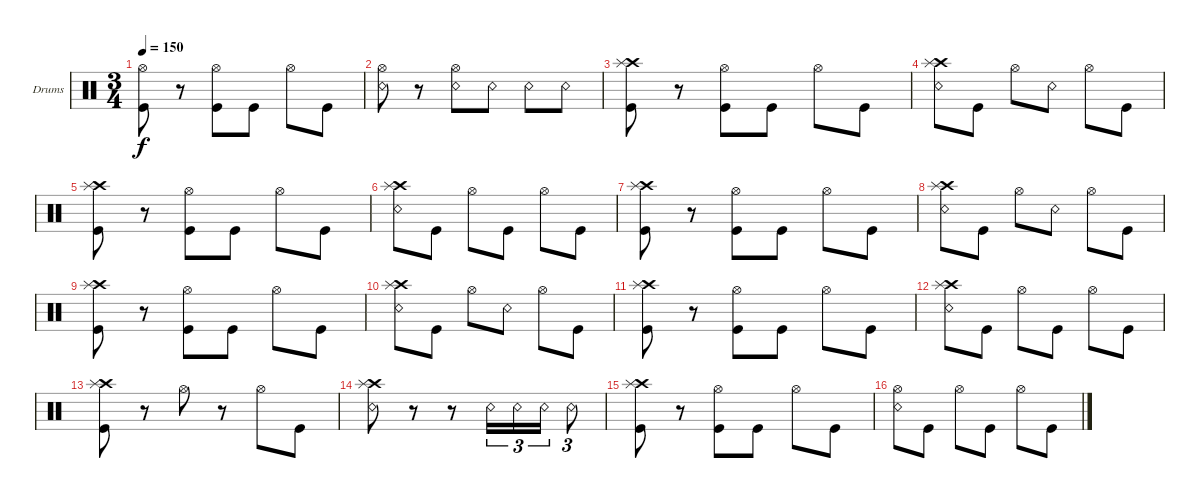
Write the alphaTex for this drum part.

\defaultSystemsLayout 4
\bracketExtendMode groupsimilarinstruments
\firstSystemTrackNameOrientation horizontal
\otherSystemsTrackNameOrientation horizontal
\track ("Scott" "Drums") {mute instrument percussion}
\staff {score}
\articulation defaults
\ts (3 4)
\tempo 150
\clef neutral
\scale
0.333333
\ks c
("Kick (hit)" "Hi-Hat (open)").8{dy f} r.8 ("Kick (hit)" "Hi-Hat (open)").8 "Kick (hit)".8 "Hi-Hat (open)".8 "Kick (hit)".8 |
\scale
0.333333 ("Snare (rim shot)" "Hi-Hat (open)").8 r.8 ("Snare (rim shot)" "Hi-Hat (open)").8 "Snare (rim shot)".8 "Snare (rim shot)".8 "Snare (rim shot)".8 |
\scale
0.333333 ("Kick (hit)" "Crash high (hit)" "Splash (hit)").8 r.8 ("Kick (hit)" "Hi-Hat (open)").8 "Kick (hit)".8 "Hi-Hat (open)".8 "Kick (hit)".8 |
\scale
0.333333 ("Snare (rim shot)" "Crash high (hit)" "Splash (hit)").8 "Kick (hit)".8 "Hi-Hat (open)".8 "Snare (rim shot)".8 "Hi-Hat (open)".8 "Kick (hit)".8 |
\scale
0.333333 ("Kick (hit)" "Crash high (hit)" "Splash (hit)").8 r.8 ("Kick (hit)" "Hi-Hat (open)").8 "Kick (hit)".8 "Hi-Hat (open)".8 "Kick (hit)".8 |
\scale
0.333333 ("Snare (rim shot)" "Crash high (hit)" "Splash (hit)").8 "Kick (hit)".8 "Hi-Hat (open)".8 "Kick (hit)".8 "Hi-Hat (open)".8 "Kick (hit)".8 |
\scale
0.333333 ("Kick (hit)" "Crash high (hit)" "Splash (hit)").8 r.8 ("Kick (hit)" "Hi-Hat (open)").8 "Kick (hit)".8 "Hi-Hat (open)".8 "Kick (hit)".8 |
\scale
0.333333 ("Snare (rim shot)" "Crash high (hit)" "Splash (hit)").8 "Kick (hit)".8 "Hi-Hat (open)".8 "Snare (rim shot)".8 "Hi-Hat (open)".8 "Kick (hit)".8 |
\scale
0.333333 ("Kick (hit)" "Crash high (hit)" "Splash (hit)").8 r.8 ("Kick (hit)" "Hi-Hat (open)").8 "Kick (hit)".8 "Hi-Hat (open)".8 "Kick (hit)".8 |
\scale
0.333333 ("Snare (rim shot)" "Crash high (hit)" "Splash (hit)").8 "Kick (hit)".8 "Hi-Hat (open)".8 "Snare (rim shot)".8 "Hi-Hat (open)".8 "Kick (hit)".8 |
\scale
0.333333 ("Kick (hit)" "Crash high (hit)" "Splash (hit)").8 r.8 ("Kick (hit)" "Hi-Hat (open)").8 "Kick (hit)".8 "Hi-Hat (open)".8 "Kick (hit)".8 |
\scale
0.333333 ("Snare (rim shot)" "Crash high (hit)" "Splash (hit)").8 "Kick (hit)".8 "Hi-Hat (open)".8 "Kick (hit)".8 "Hi-Hat (open)".8 "Kick (hit)".8 |
\scale
0.333333 ("Kick (hit)" "Crash high (hit)" "Splash (hit)").8 r.8 "Hi-Hat (open)".8 r.8 "Hi-Hat (open)".8 "Kick (hit)".8 |
\scale
0.333333 ("Snare (rim shot)" "Crash high (hit)" "Splash (hit)").8 r.8 r.8 "Snare (rim shot)".16{tu (3 2)} "Snare (rim shot)".16{tu (3 2)} "Snare (rim shot)".16{tu (3 2)} "Snare (rim shot)".8{tu (3 2)} |
\scale
0.333333 ("Kick (hit)" "Crash high (hit)" "Splash (hit)").8 r.8 ("Kick (hit)" "Hi-Hat (open)").8 "Kick (hit)".8 "Hi-Hat (open)".8 "Kick (hit)".8 |
\scale
0.333333 ("Snare (rim shot)" "Hi-Hat (open)").8 "Kick (hit)".8 "Hi-Hat (open)".8 "Kick (hit)".8 "Hi-Hat (open)".8 "Kick (hit)".8
